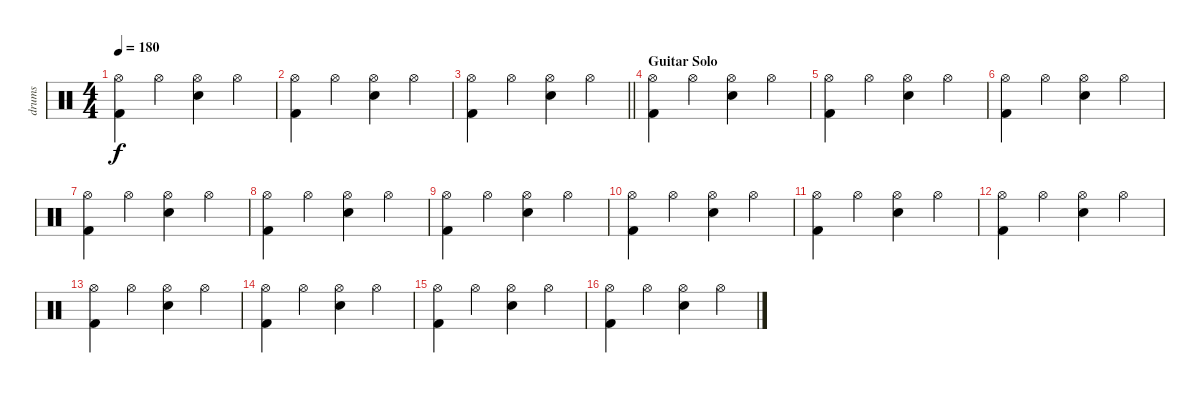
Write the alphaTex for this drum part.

\track ("drums" "drums") {instrument percussion}
\staff {score}
\articulation defaults
\ts (4 4)
\tempo 180
\clef neutral
\ks c
("Hi-Hat (open)" "Kick (hit) 2").4{dy f} "Hi-Hat (open)".4 ("Hi-Hat (open)" "Snare (hit) 2").4 "Hi-Hat (open)".4 |
("Hi-Hat (open)" "Kick (hit) 2").4 "Hi-Hat (open)".4 ("Hi-Hat (open)" "Snare (hit) 2").4 "Hi-Hat (open)".4 |
\barLineRight lightlight
("Hi-Hat (open)" "Kick (hit) 2").4 "Hi-Hat (open)".4 ("Hi-Hat (open)" "Snare (hit) 2").4 "Hi-Hat (open)".4 |
\section ("" "Guitar Solo")
("Hi-Hat (open)" "Kick (hit) 2").4 "Hi-Hat (open)".4 ("Hi-Hat (open)" "Snare (hit) 2").4 "Hi-Hat (open)".4 |
("Hi-Hat (open)" "Kick (hit) 2").4 "Hi-Hat (open)".4 ("Hi-Hat (open)" "Snare (hit) 2").4 "Hi-Hat (open)".4 |
("Hi-Hat (open)" "Kick (hit) 2").4 "Hi-Hat (open)".4 ("Hi-Hat (open)" "Snare (hit) 2").4 "Hi-Hat (open)".4 |
("Hi-Hat (open)" "Kick (hit) 2").4 "Hi-Hat (open)".4 ("Hi-Hat (open)" "Snare (hit) 2").4 "Hi-Hat (open)".4 |
("Hi-Hat (open)" "Kick (hit) 2").4 "Hi-Hat (open)".4 ("Hi-Hat (open)" "Snare (hit) 2").4 "Hi-Hat (open)".4 |
("Hi-Hat (open)" "Kick (hit) 2").4 "Hi-Hat (open)".4 ("Hi-Hat (open)" "Snare (hit) 2").4 "Hi-Hat (open)".4 |
("Hi-Hat (open)" "Kick (hit) 2").4 "Hi-Hat (open)".4 ("Hi-Hat (open)" "Snare (hit) 2").4 "Hi-Hat (open)".4 |
("Hi-Hat (open)" "Kick (hit) 2").4 "Hi-Hat (open)".4 ("Hi-Hat (open)" "Snare (hit) 2").4 "Hi-Hat (open)".4 |
("Hi-Hat (open)" "Kick (hit) 2").4 "Hi-Hat (open)".4 ("Hi-Hat (open)" "Snare (hit) 2").4 "Hi-Hat (open)".4 |
("Hi-Hat (open)" "Kick (hit) 2").4 "Hi-Hat (open)".4 ("Hi-Hat (open)" "Snare (hit) 2").4 "Hi-Hat (open)".4 |
("Hi-Hat (open)" "Kick (hit) 2").4 "Hi-Hat (open)".4 ("Hi-Hat (open)" "Snare (hit) 2").4 "Hi-Hat (open)".4 |
("Hi-Hat (open)" "Kick (hit) 2").4 "Hi-Hat (open)".4 ("Hi-Hat (open)" "Snare (hit) 2").4 "Hi-Hat (open)".4 |
("Hi-Hat (open)" "Kick (hit) 2").4 "Hi-Hat (open)".4 ("Hi-Hat (open)" "Snare (hit) 2").4 "Hi-Hat (open)".4
